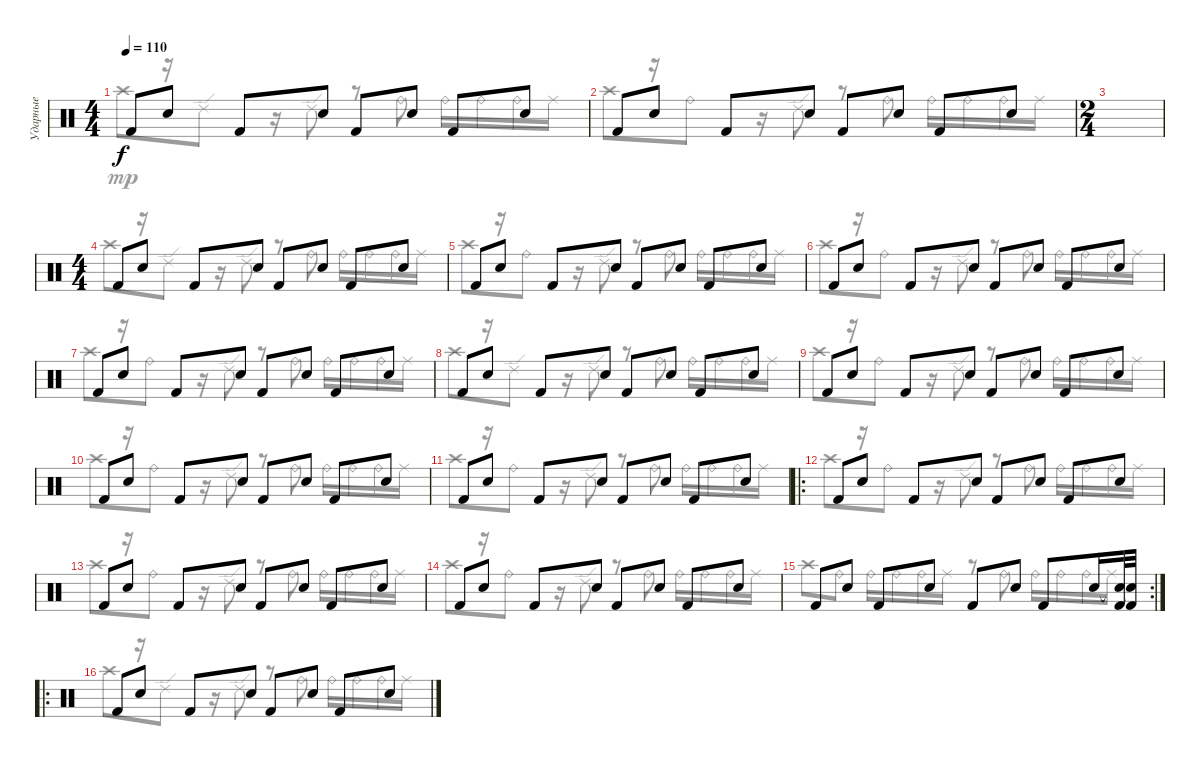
\track ("Ударные" "Ударные") {instrument percussion}
\staff {score}
\articulation defaults
\voice
\ts (4 4)
\tempo 110
\clef neutral
\ks c "Kick (hit) 2".8{dy f} "Snare (hit) 2".8 "Kick (hit) 2".8 "Snare (hit) 2".8 "Kick (hit) 2".8 "Snare (hit) 2".8 "Kick (hit) 2".8 "Snare (hit) 2".8
|
"Kick (hit) 2".8 "Snare (hit) 2".8 "Kick (hit) 2".8 "Snare (hit) 2".8 "Kick (hit) 2".8 "Snare (hit) 2".8 "Kick (hit) 2".8 "Snare (hit) 2".8 |
\ts (2 4)
|
\ts (4 4)
"Kick (hit) 2".8 "Snare (hit) 2".8 "Kick (hit) 2".8 "Snare (hit) 2".8 "Kick (hit) 2".8 "Snare (hit) 2".8 "Kick (hit) 2".8 "Snare (hit) 2".8 |
"Kick (hit) 2".8 "Snare (hit) 2".8 "Kick (hit) 2".8 "Snare (hit) 2".8 "Kick (hit) 2".8 "Snare (hit) 2".8 "Kick (hit) 2".8 "Snare (hit) 2".8 |
"Kick (hit) 2".8 "Snare (hit) 2".8 "Kick (hit) 2".8 "Snare (hit) 2".8 "Kick (hit) 2".8 "Snare (hit) 2".8 "Kick (hit) 2".8 "Snare (hit) 2".8 |
"Kick (hit) 2".8 "Snare (hit) 2".8 "Kick (hit) 2".8 "Snare (hit) 2".8 "Kick (hit) 2".8 "Snare (hit) 2".8 "Kick (hit) 2".8 "Snare (hit) 2".8 |
"Kick (hit) 2".8 "Snare (hit) 2".8 "Kick (hit) 2".8 "Snare (hit) 2".8 "Kick (hit) 2".8 "Snare (hit) 2".8 "Kick (hit) 2".8 "Snare (hit) 2".8 |
"Kick (hit) 2".8 "Snare (hit) 2".8 "Kick (hit) 2".8 "Snare (hit) 2".8 "Kick (hit) 2".8 "Snare (hit) 2".8 "Kick (hit) 2".8 "Snare (hit) 2".8 |
"Kick (hit) 2".8 "Snare (hit) 2".8 "Kick (hit) 2".8 "Snare (hit) 2".8 "Kick (hit) 2".8 "Snare (hit) 2".8 "Kick (hit) 2".8 "Snare (hit) 2".8 |
"Kick (hit) 2".8 "Snare (hit) 2".8 "Kick (hit) 2".8 "Snare (hit) 2".8 "Kick (hit) 2".8 "Snare (hit) 2".8 "Kick (hit) 2".8 "Snare (hit) 2".8 |
\ro "Kick (hit) 2".8 "Snare (hit) 2".8 "Kick (hit) 2".8 "Snare (hit) 2".8 "Kick (hit) 2".8 "Snare (hit) 2".8 "Kick (hit) 2".8 "Snare (hit) 2".8
|
"Kick (hit) 2".8 "Snare (hit) 2".8 "Kick (hit) 2".8 "Snare (hit) 2".8 "Kick (hit) 2".8 "Snare (hit) 2".8 "Kick (hit) 2".8 "Snare (hit) 2".8 |
"Kick (hit) 2".8 "Snare (hit) 2".8 "Kick (hit) 2".8 "Snare (hit) 2".8 "Kick (hit) 2".8 "Snare (hit) 2".8 "Kick (hit) 2".8 "Snare (hit) 2".8 |
\rc 2 "Kick (hit) 2".8 "Snare (hit) 2".8 "Kick (hit) 2".8 "Snare (hit) 2".8 "Kick (hit) 2".8 "Snare (hit) 2".8 "Kick (hit) 2".8 "Snare (hit) 2".16
("Snare (hit) 2"{t} "Kick (hit) 2").32 ("Snare (hit) 2"{t} "Kick (hit) 2").32 |
\ro "Kick (hit) 2".8 "Snare (hit) 2".8 "Kick (hit) 2".8 "Snare (hit) 2".8 "Kick (hit) 2".8 "Snare (hit) 2".8 "Kick (hit) 2".8 "Snare (hit) 2".8
\voice
\clef neutral
\ottava regular
\simile none
\ks c "Crash high (hit)".8{dy mp}
r.16 "Ride (edge) 2".8 r.16 "Ride (edge) 2".8 r.8 "Ride (bell)".8 "Ride (bell)".16 "Ride (bell)".16 "Ride (bell)".16 "Ride (middle)".16 |
"Crash high (hit)".8 r.16 "Ride (bell)".8 r.16 "Ride (edge) 2".8 r.8 "Ride (bell)".8 "Ride (bell)".16 "Ride (bell)".16 "Ride (bell)".16 "Ride (middle)".16 |
|
"Crash high (hit)".8 r.16 "Ride (edge) 2".8 r.16 "Ride (edge) 2".8 r.8 "Ride (bell)".8 "Ride (bell)".16 "Ride (bell)".16 "Ride (bell)".16 "Ride (middle)".16 |
"Crash high (hit)".8 r.16 "Ride (bell)".8 r.16 "Ride (edge) 2".8 r.8 "Ride (bell)".8 "Ride (bell)".16 "Ride (bell)".16 "Ride (bell)".16 "Ride (middle)".16 |
"Crash high (hit)".8 r.16 "Ride (bell)".8 r.16 "Ride (edge) 2".8 r.8 "Ride (bell)".8 "Ride (bell)".16 "Ride (bell)".16 "Ride (bell)".16 "Ride (middle)".16 |
"Crash high (hit)".8 r.16 "Ride (bell)".8 r.16 "Ride (edge) 2".8 r.8 "Ride (bell)".8 "Ride (bell)".16 "Ride (bell)".16 "Ride (bell)".16 "Ride (middle)".16 |
"Crash high (hit)".8 r.16 "Ride (edge) 2".8 r.16 "Ride (edge) 2".8 r.8 "Ride (bell)".8 "Ride (bell)".16 "Ride (bell)".16 "Ride (bell)".16 "Ride (middle)".16 |
"Crash high (hit)".8 r.16 "Ride (bell)".8 r.16 "Ride (edge) 2".8 r.8 "Ride (bell)".8 "Ride (bell)".16 "Ride (bell)".16 "Ride (bell)".16 "Ride (middle)".16 |
"Crash high (hit)".8 r.16 "Ride (bell)".8 r.16 "Ride (edge) 2".8 r.8 "Ride (bell)".8 "Ride (bell)".16 "Ride (bell)".16 "Ride (bell)".16 "Ride (middle)".16 |
"Crash high (hit)".8 r.16 "Ride (bell)".8 r.16 "Ride (edge) 2".8 r.8 "Ride (bell)".8 "Ride (bell)".16 "Ride (bell)".16 "Ride (bell)".16 "Ride (middle)".16 |
"Crash high (hit)".8 r.16 "Ride (bell)".8 r.16 "Ride (edge) 2".8 r.8 "Ride (bell)".8 "Ride (bell)".16 "Ride (bell)".16 "Ride (bell)".16 "Ride (middle)".16 |
"Crash high (hit)".8 r.16 "Ride (bell)".8 r.16 "Ride (edge) 2".8 r.8 "Ride (bell)".8 "Ride (bell)".16 "Ride (bell)".16 "Ride (bell)".16 "Ride (middle)".16 |
"Crash high (hit)".8 r.16 "Ride (bell)".8 r.16 "Ride (edge) 2".8 r.8 "Ride (bell)".8 "Ride (bell)".16 "Ride (bell)".16 "Ride (bell)".16 "Ride (middle)".16 |
"Crash high (hit)".8 "Ride (bell)".8 "Ride (bell)".16 "Ride (bell)".16 "Ride (bell)".16 "Ride (middle)".16 r.8 "Ride (bell)".8 "Ride (bell)".16 "Ride (bell)".16 "Ride (bell)".16 "Ride (middle)".16 |
"Crash high (hit)".8 r.16 "Ride (edge) 2".8 r.16 "Ride (edge) 2".8 r.8 "Ride (bell)".8 "Ride (bell)".16 "Ride (bell)".16 "Ride (bell)".16 "Ride (middle)".16
